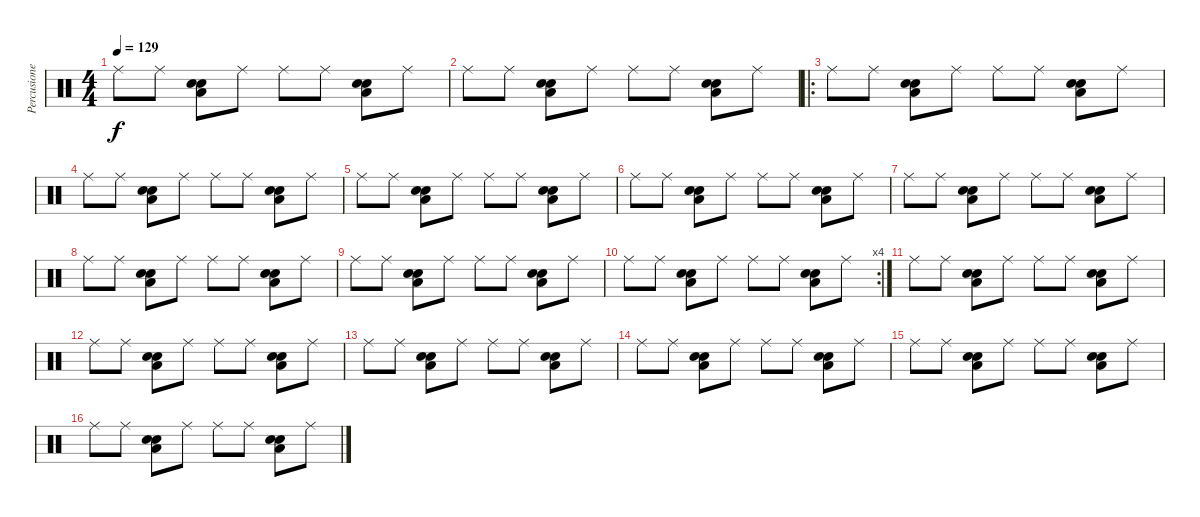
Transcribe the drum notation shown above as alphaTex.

\track ("Percusiones" "Percusione") {instrument percussion}
\staff {score}
\articulation defaults
\ts (4 4)
\tempo 129
\clef neutral
\ks c "Ride (middle)".8{dy f} "Ride (middle)".8
("Electric Snare (hit)" "Low Floor Tom (hit)" "Snare (hit) 2").8 "Ride (middle)".8 "Ride (middle)".8 "Ride (middle)".8 ("Electric Snare (hit)" "Low Floor Tom (hit)" "Snare (hit) 2").8 "Ride (middle)".8 |
"Ride (middle)".8 "Ride (middle)".8 ("Electric Snare (hit)" "Low Floor Tom (hit)" "Snare (hit) 2").8 "Ride (middle)".8 "Ride (middle)".8 "Ride (middle)".8 ("Electric Snare (hit)" "Low Floor Tom (hit)" "Snare (hit) 2").8 "Ride (middle)".8 |
\ro "Ride (middle)".8 "Ride (middle)".8
("Electric Snare (hit)" "Low Floor Tom (hit)" "Snare (hit) 2").8 "Ride (middle)".8 "Ride (middle)".8 "Ride (middle)".8 ("Electric Snare (hit)" "Low Floor Tom (hit)" "Snare (hit) 2").8 "Ride (middle)".8 |
"Ride (middle)".8 "Ride (middle)".8 ("Electric Snare (hit)" "Low Floor Tom (hit)" "Snare (hit) 2").8 "Ride (middle)".8 "Ride (middle)".8 "Ride (middle)".8 ("Electric Snare (hit)" "Low Floor Tom (hit)" "Snare (hit) 2").8 "Ride (middle)".8 |
"Ride (middle)".8 "Ride (middle)".8 ("Electric Snare (hit)" "Low Floor Tom (hit)" "Snare (hit) 2").8 "Ride (middle)".8 "Ride (middle)".8 "Ride (middle)".8 ("Electric Snare (hit)" "Low Floor Tom (hit)" "Snare (hit) 2").8 "Ride (middle)".8 |
"Ride (middle)".8 "Ride (middle)".8 ("Electric Snare (hit)" "Low Floor Tom (hit)" "Snare (hit) 2").8 "Ride (middle)".8 "Ride (middle)".8 "Ride (middle)".8 ("Electric Snare (hit)" "Low Floor Tom (hit)" "Snare (hit) 2").8 "Ride (middle)".8 |
"Ride (middle)".8 "Ride (middle)".8 ("Electric Snare (hit)" "Low Floor Tom (hit)" "Snare (hit) 2").8 "Ride (middle)".8 "Ride (middle)".8 "Ride (middle)".8 ("Electric Snare (hit)" "Low Floor Tom (hit)" "Snare (hit) 2").8 "Ride (middle)".8 |
"Ride (middle)".8 "Ride (middle)".8 ("Electric Snare (hit)" "Low Floor Tom (hit)" "Snare (hit) 2").8 "Ride (middle)".8 "Ride (middle)".8 "Ride (middle)".8 ("Electric Snare (hit)" "Low Floor Tom (hit)" "Snare (hit) 2").8 "Ride (middle)".8 |
"Ride (middle)".8 "Ride (middle)".8 ("Electric Snare (hit)" "Low Floor Tom (hit)" "Snare (hit) 2").8 "Ride (middle)".8 "Ride (middle)".8 "Ride (middle)".8 ("Electric Snare (hit)" "Low Floor Tom (hit)" "Snare (hit) 2").8 "Ride (middle)".8 |
\rc 4 "Ride (middle)".8 "Ride (middle)".8
("Electric Snare (hit)" "Low Floor Tom (hit)" "Snare (hit) 2").8 "Ride (middle)".8 "Ride (middle)".8 "Ride (middle)".8 ("Electric Snare (hit)" "Low Floor Tom (hit)" "Snare (hit) 2").8 "Ride (middle)".8 |
"Ride (middle)".8 "Ride (middle)".8 ("Electric Snare (hit)" "Low Floor Tom (hit)" "Snare (hit) 2").8 "Ride (middle)".8 "Ride (middle)".8 "Ride (middle)".8 ("Electric Snare (hit)" "Low Floor Tom (hit)" "Snare (hit) 2").8 "Ride (middle)".8 |
"Ride (middle)".8 "Ride (middle)".8 ("Electric Snare (hit)" "Low Floor Tom (hit)" "Snare (hit) 2").8 "Ride (middle)".8 "Ride (middle)".8 "Ride (middle)".8 ("Electric Snare (hit)" "Low Floor Tom (hit)" "Snare (hit) 2").8 "Ride (middle)".8 |
"Ride (middle)".8 "Ride (middle)".8 ("Electric Snare (hit)" "Low Floor Tom (hit)" "Snare (hit) 2").8 "Ride (middle)".8 "Ride (middle)".8 "Ride (middle)".8 ("Electric Snare (hit)" "Low Floor Tom (hit)" "Snare (hit) 2").8 "Ride (middle)".8 |
"Ride (middle)".8 "Ride (middle)".8 ("Electric Snare (hit)" "Low Floor Tom (hit)" "Snare (hit) 2").8 "Ride (middle)".8 "Ride (middle)".8 "Ride (middle)".8 ("Electric Snare (hit)" "Low Floor Tom (hit)" "Snare (hit) 2").8 "Ride (middle)".8 |
"Ride (middle)".8 "Ride (middle)".8 ("Electric Snare (hit)" "Low Floor Tom (hit)" "Snare (hit) 2").8 "Ride (middle)".8 "Ride (middle)".8 "Ride (middle)".8 ("Electric Snare (hit)" "Low Floor Tom (hit)" "Snare (hit) 2").8 "Ride (middle)".8 |
"Ride (middle)".8 "Ride (middle)".8 ("Electric Snare (hit)" "Low Floor Tom (hit)" "Snare (hit) 2").8 "Ride (middle)".8 "Ride (middle)".8 "Ride (middle)".8 ("Electric Snare (hit)" "Low Floor Tom (hit)" "Snare (hit) 2").8 "Ride (middle)".8
